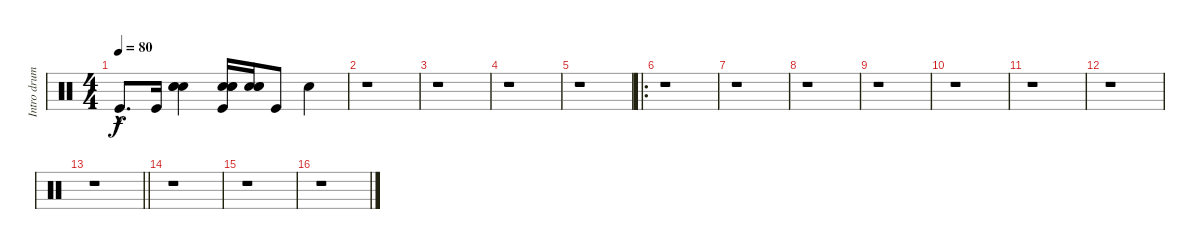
\track ("Intro drums" "Intro drum") {instrument percussion}
\staff {score}
\articulation defaults
\ts (4 4)
\tempo 80
\clef neutral
\ks c "Kick (hit)"{hac}.8{d dy f} "Kick (hit)".16
("Hand Clap (hit)" "Hand Clap (hit)" "Snare (hit) 2").4 ("Hand Clap (hit)" "Hand Clap (hit)" "Hand Clap (hit)" "Kick (hit)").16 ("Hand Clap (hit)" "Hand Clap (hit)" "Hand Clap (hit)").16 "Kick (hit)".8 "Snare (hit) 2".4 |
r.1 |
r.1 |
r.1 |
r.1 |
\ro
r.1 |
r.1 |
r.1 |
r.1 |
r.1 |
r.1 |
r.1 |
\barLineRight lightlight
r.1 |
r.1 |
r.1 |
r.1
